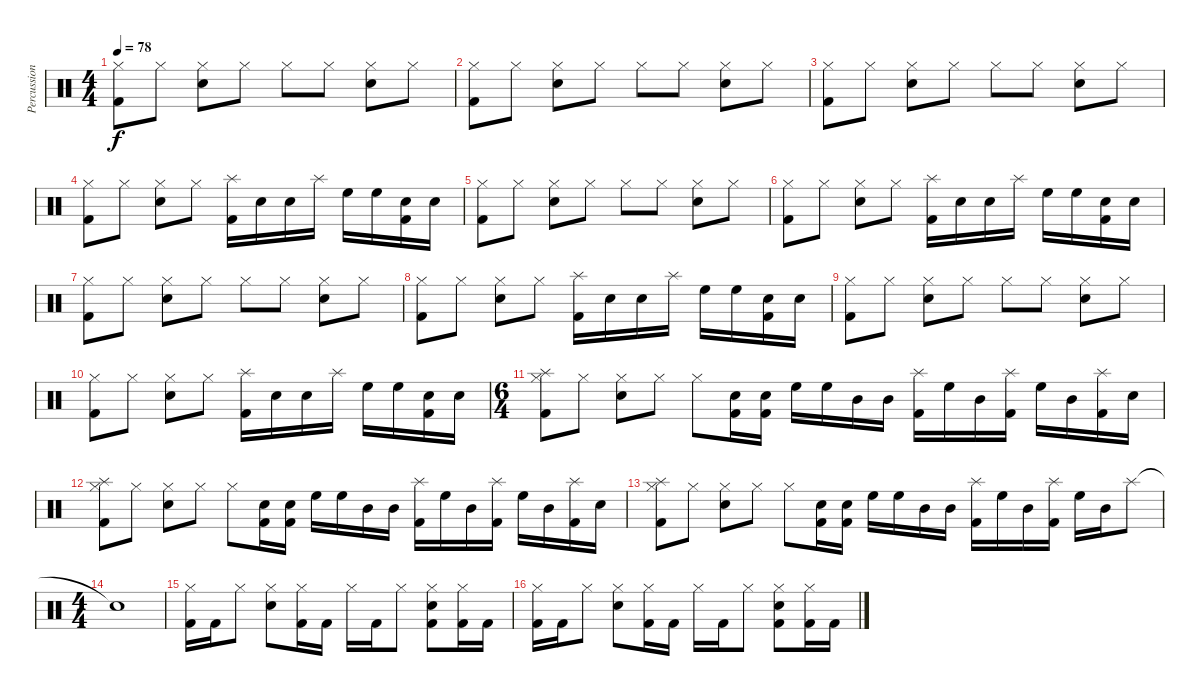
\track ("Percussion" "Percussion") {instrument percussion}
\staff {score}
\articulation defaults
\ts (4 4)
\tempo 78
\clef neutral
\ks c
("Hi-Hat (closed)" "Kick (hit) 2").8{dy f} "Hi-Hat (closed)".8 ("Hi-Hat (closed)" "Snare (hit) 2").8 "Hi-Hat (closed)".8 "Hi-Hat (closed)".8 "Hi-Hat (closed)".8 ("Hi-Hat (closed)" "Snare (hit) 2").8 "Hi-Hat (closed)".8 |
("Hi-Hat (closed)" "Kick (hit) 2").8 "Hi-Hat (closed)".8 ("Hi-Hat (closed)" "Snare (hit) 2").8 "Hi-Hat (closed)".8 "Hi-Hat (closed)".8 "Hi-Hat (closed)".8 ("Hi-Hat (closed)" "Snare (hit) 2").8 "Hi-Hat (closed)".8 |
("Hi-Hat (closed)" "Kick (hit) 2").8 "Hi-Hat (closed)".8 ("Hi-Hat (closed)" "Snare (hit) 2").8 "Hi-Hat (closed)".8 "Hi-Hat (closed)".8 "Hi-Hat (closed)".8 ("Hi-Hat (closed)" "Snare (hit) 2").8 "Hi-Hat (closed)".8 |
("Hi-Hat (closed)" "Kick (hit) 2").8 "Hi-Hat (closed)".8 ("Hi-Hat (closed)" "Snare (hit) 2").8 "Hi-Hat (closed)".8 ("Splash (hit)" "Kick (hit) 2").16 "Snare (hit) 2".16 "Snare (hit) 2".16 "Splash (hit)".16 "High Floor Tom (hit)".16 "High Floor Tom (hit)".16 ("Electric Snare (hit)" "Kick (hit) 2").16 "Electric Snare (hit)".16 |
("Hi-Hat (closed)" "Kick (hit) 2").8 "Hi-Hat (closed)".8 ("Hi-Hat (closed)" "Snare (hit) 2").8 "Hi-Hat (closed)".8 "Hi-Hat (closed)".8 "Hi-Hat (closed)".8 ("Hi-Hat (closed)" "Snare (hit) 2").8 "Hi-Hat (closed)".8 |
("Hi-Hat (closed)" "Kick (hit) 2").8 "Hi-Hat (closed)".8 ("Hi-Hat (closed)" "Snare (hit) 2").8 "Hi-Hat (closed)".8 ("Splash (hit)" "Kick (hit) 2").16 "Snare (hit) 2".16 "Snare (hit) 2".16 "Splash (hit)".16 "High Floor Tom (hit)".16 "High Floor Tom (hit)".16 ("Electric Snare (hit)" "Kick (hit) 2").16 "Electric Snare (hit)".16 |
("Hi-Hat (closed)" "Kick (hit) 2").8 "Hi-Hat (closed)".8 ("Hi-Hat (closed)" "Snare (hit) 2").8 "Hi-Hat (closed)".8 "Hi-Hat (closed)".8 "Hi-Hat (closed)".8 ("Hi-Hat (closed)" "Snare (hit) 2").8 "Hi-Hat (closed)".8 |
("Hi-Hat (closed)" "Kick (hit) 2").8 "Hi-Hat (closed)".8 ("Hi-Hat (closed)" "Snare (hit) 2").8 "Hi-Hat (closed)".8 ("Splash (hit)" "Kick (hit) 2").16 "Snare (hit) 2".16 "Snare (hit) 2".16 "Splash (hit)".16 "High Floor Tom (hit)".16 "High Floor Tom (hit)".16 ("Electric Snare (hit)" "Kick (hit) 2").16 "Electric Snare (hit)".16 |
("Hi-Hat (closed)" "Kick (hit) 2").8 "Hi-Hat (closed)".8 ("Hi-Hat (closed)" "Snare (hit) 2").8 "Hi-Hat (closed)".8 "Hi-Hat (closed)".8 "Hi-Hat (closed)".8 ("Hi-Hat (closed)" "Snare (hit) 2").8 "Hi-Hat (closed)".8 |
("Hi-Hat (closed)" "Kick (hit) 2").8 "Hi-Hat (closed)".8 ("Hi-Hat (closed)" "Snare (hit) 2").8 "Hi-Hat (closed)".8 ("Splash (hit)" "Kick (hit) 2").16 "Snare (hit) 2".16 "Snare (hit) 2".16 "Splash (hit)".16 "High Floor Tom (hit)".16 "High Floor Tom (hit)".16 ("Electric Snare (hit)" "Kick (hit) 2").16 "Electric Snare (hit)".16 |
\ts (6 4)
("Hi-Hat (closed)" "Kick (hit) 2" "Splash (hit)").8 "Hi-Hat (closed)".8 ("Hi-Hat (closed)" "Snare (hit) 2").8 "Hi-Hat (closed)".8 "Hi-Hat (closed)".8 ("Kick (hit) 2" "Snare (hit) 2").16 ("Snare (hit) 2" "Kick (hit) 2").16 "High Floor Tom (hit)".16 "High Floor Tom (hit)".16 "Mid Tom (hit)".16 "Mid Tom (hit)".16 ("Splash (hit)" "Kick (hit) 2").16 "High Floor Tom (hit)".16 "Mid Tom (hit)".16 ("Splash (hit)" "Kick (hit) 2").16 "High Floor Tom (hit)".16 "Mid Tom (hit)".16 ("Splash (hit)" "Kick (hit) 2").16 "Snare (hit) 2".16 |
("Hi-Hat (closed)" "Kick (hit) 2" "Splash (hit)").8 "Hi-Hat (closed)".8 ("Hi-Hat (closed)" "Snare (hit) 2").8 "Hi-Hat (closed)".8 "Hi-Hat (closed)".8 ("Kick (hit) 2" "Snare (hit) 2").16 ("Snare (hit) 2" "Kick (hit) 2").16 "High Floor Tom (hit)".16 "High Floor Tom (hit)".16 "Mid Tom (hit)".16 "Mid Tom (hit)".16 ("Splash (hit)" "Kick (hit) 2").16 "High Floor Tom (hit)".16 "Mid Tom (hit)".16 ("Splash (hit)" "Kick (hit) 2").16 "High Floor Tom (hit)".16 "Mid Tom (hit)".16 ("Splash (hit)" "Kick (hit) 2").16 "Snare (hit) 2".16 |
("Hi-Hat (closed)" "Kick (hit) 2" "Splash (hit)").8 "Hi-Hat (closed)".8 ("Hi-Hat (closed)" "Snare (hit) 2").8 "Hi-Hat (closed)".8 "Hi-Hat (closed)".8 ("Kick (hit) 2" "Snare (hit) 2").16 ("Snare (hit) 2" "Kick (hit) 2").16 "High Floor Tom (hit)".16 "High Floor Tom (hit)".16 "Mid Tom (hit)".16 "Mid Tom (hit)".16 ("Splash (hit)" "Kick (hit) 2").16 "High Floor Tom (hit)".16 "Mid Tom (hit)".16 ("Splash (hit)" "Kick (hit) 2").16 "High Floor Tom (hit)".16 "Mid Tom (hit)".16 "Splash (hit)".8 |
\ts (4 4)
"Snare (hit)"{t}.1 |
("Hi-Hat (closed)" "Kick (hit) 2").16 "Kick (hit) 2".16 "Hi-Hat (closed)".8 ("Hi-Hat (closed)" "Snare (hit) 2").8 ("Hi-Hat (closed)" "Kick (hit) 2").16 "Kick (hit) 2".16 "Hi-Hat (closed)".16 "Kick (hit) 2".16 "Hi-Hat (closed)".8 ("Hi-Hat (closed)" "Snare (hit) 2" "Kick (hit) 2").8 ("Hi-Hat (closed)" "Kick (hit) 2").16 "Kick (hit) 2".16 |
("Hi-Hat (closed)" "Kick (hit) 2").16 "Kick (hit) 2".16 "Hi-Hat (closed)".8 ("Hi-Hat (closed)" "Snare (hit) 2").8 ("Hi-Hat (closed)" "Kick (hit) 2").16 "Kick (hit) 2".16 "Hi-Hat (closed)".16 "Kick (hit) 2".16 "Hi-Hat (closed)".8 ("Hi-Hat (closed)" "Snare (hit) 2" "Kick (hit) 2").8 ("Hi-Hat (closed)" "Kick (hit) 2").16 "Kick (hit) 2".16
